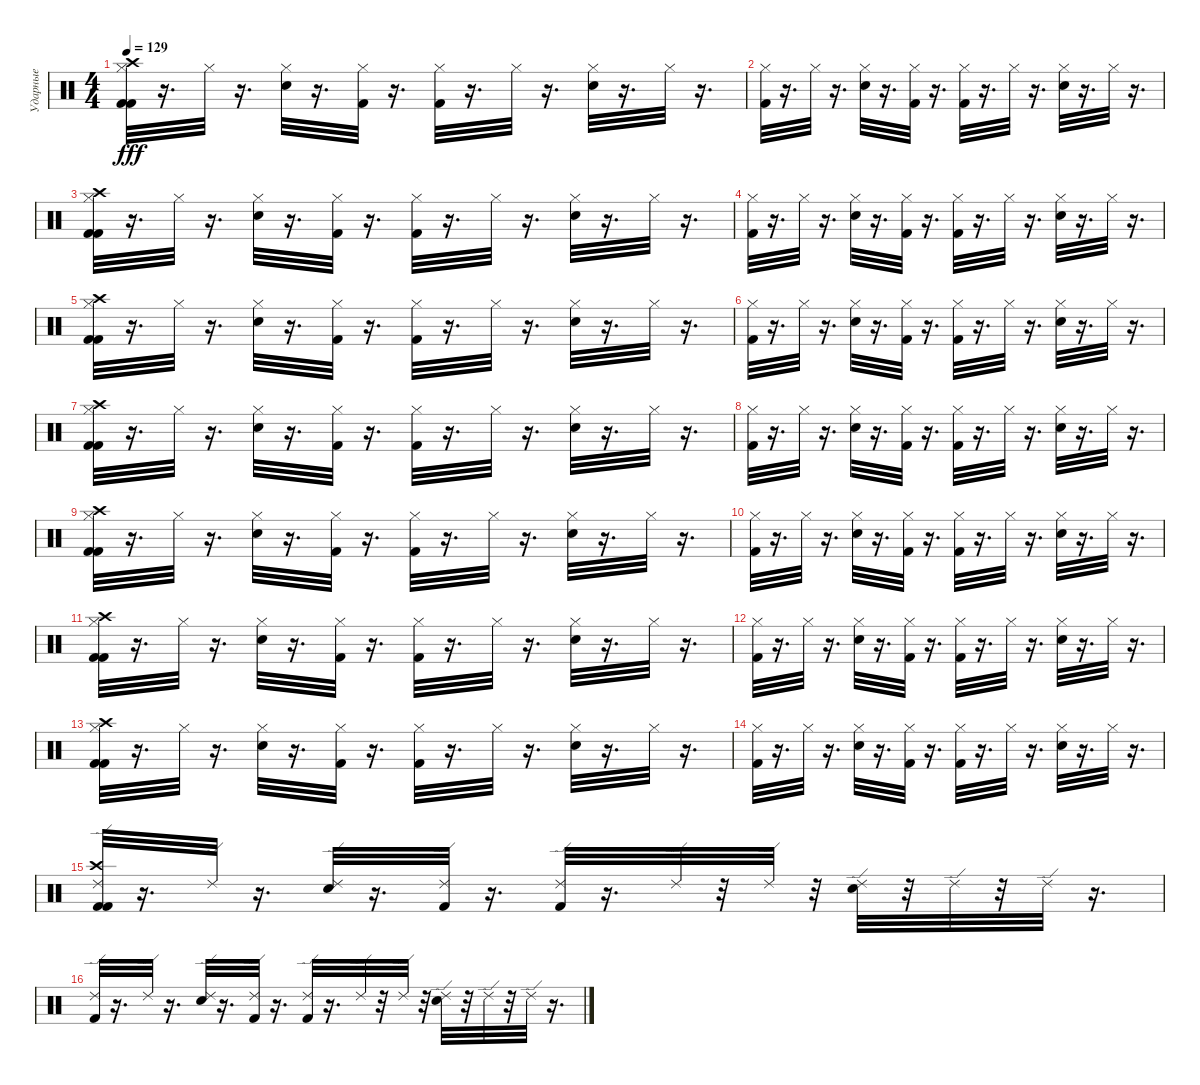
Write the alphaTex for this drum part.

\track ("Ударные" "Ударные") {instrument percussion}
\staff {score}
\articulation defaults
\ts (4 4)
\tempo 129
\clef neutral
\ks c
("Kick (hit) 2" "Crash high (hit)" "Kick (hit) 2" "Hi-Hat (closed)").32{dy fff balance 10} r.16{d} "Hi-Hat (closed)".32{balance 10} r.16{d} ("Electric Snare (hit)" "Hi-Hat (closed)").32{balance 10} r.16{d} ("Kick (hit) 2" "Hi-Hat (closed)").32{balance 10} r.16{d} ("Kick (hit) 2" "Hi-Hat (closed)").32{balance 10} r.16{d} "Hi-Hat (closed)".32{balance 10} r.16{d} ("Electric Snare (hit)" "Hi-Hat (closed)").32{balance 10} r.16{d} "Hi-Hat (closed)".32{balance 10} r.16{d} |
("Kick (hit) 2" "Hi-Hat (closed)").32{balance 10} r.16{d} "Hi-Hat (closed)".32{balance 10} r.16{d} ("Electric Snare (hit)" "Hi-Hat (closed)").32{balance 10} r.16{d} ("Kick (hit) 2" "Hi-Hat (closed)").32{balance 10} r.16{d} ("Kick (hit) 2" "Hi-Hat (closed)").32{balance 10} r.16{d} "Hi-Hat (closed)".32{balance 10} r.16{d} ("Electric Snare (hit)" "Hi-Hat (closed)").32{balance 10} r.16{d} "Hi-Hat (closed)".32{balance 10} r.16{d} |
("Kick (hit) 2" "Crash high (hit)" "Kick (hit) 2" "Hi-Hat (closed)").32{balance 10} r.16{d} "Hi-Hat (closed)".32{balance 10} r.16{d} ("Electric Snare (hit)" "Hi-Hat (closed)").32{balance 10} r.16{d} ("Kick (hit) 2" "Hi-Hat (closed)").32{balance 10} r.16{d} ("Kick (hit) 2" "Hi-Hat (closed)").32{balance 10} r.16{d} "Hi-Hat (closed)".32{balance 10} r.16{d} ("Electric Snare (hit)" "Hi-Hat (closed)").32{balance 10} r.16{d} "Hi-Hat (closed)".32{balance 10} r.16{d} |
("Kick (hit) 2" "Hi-Hat (closed)").32{balance 10} r.16{d} "Hi-Hat (closed)".32{balance 10} r.16{d} ("Electric Snare (hit)" "Hi-Hat (closed)").32{balance 10} r.16{d} ("Kick (hit) 2" "Hi-Hat (closed)").32{balance 10} r.16{d} ("Kick (hit) 2" "Hi-Hat (closed)").32{balance 10} r.16{d} "Hi-Hat (closed)".32{balance 10} r.16{d} ("Electric Snare (hit)" "Hi-Hat (closed)").32{balance 10} r.16{d} "Hi-Hat (closed)".32{balance 10} r.16{d} |
("Kick (hit) 2" "Crash high (hit)" "Kick (hit) 2" "Hi-Hat (closed)").32{balance 10} r.16{d} "Hi-Hat (closed)".32{balance 10} r.16{d} ("Electric Snare (hit)" "Hi-Hat (closed)").32{balance 10} r.16{d} ("Kick (hit) 2" "Hi-Hat (closed)").32{balance 10} r.16{d} ("Kick (hit) 2" "Hi-Hat (closed)").32{balance 10} r.16{d} "Hi-Hat (closed)".32{balance 10} r.16{d} ("Electric Snare (hit)" "Hi-Hat (closed)").32{balance 10} r.16{d} "Hi-Hat (closed)".32{balance 10} r.16{d} |
("Kick (hit) 2" "Hi-Hat (closed)").32{balance 10} r.16{d} "Hi-Hat (closed)".32{balance 10} r.16{d} ("Electric Snare (hit)" "Hi-Hat (closed)").32{balance 10} r.16{d} ("Kick (hit) 2" "Hi-Hat (closed)").32{balance 10} r.16{d} ("Kick (hit) 2" "Hi-Hat (closed)").32{balance 10} r.16{d} "Hi-Hat (closed)".32{balance 10} r.16{d} ("Electric Snare (hit)" "Hi-Hat (closed)").32{balance 10} r.16{d} "Hi-Hat (closed)".32{balance 10} r.16{d} |
("Kick (hit) 2" "Crash high (hit)" "Kick (hit) 2" "Hi-Hat (closed)").32{balance 10} r.16{d} "Hi-Hat (closed)".32{balance 10} r.16{d} ("Electric Snare (hit)" "Hi-Hat (closed)").32{balance 10} r.16{d} ("Kick (hit) 2" "Hi-Hat (closed)").32{balance 10} r.16{d} ("Kick (hit) 2" "Hi-Hat (closed)").32{balance 10} r.16{d} "Hi-Hat (closed)".32{balance 10} r.16{d} ("Electric Snare (hit)" "Hi-Hat (closed)").32{balance 10} r.16{d} "Hi-Hat (closed)".32{balance 10} r.16{d} |
("Kick (hit) 2" "Hi-Hat (closed)").32{balance 10} r.16{d} "Hi-Hat (closed)".32{balance 10} r.16{d} ("Electric Snare (hit)" "Hi-Hat (closed)").32{balance 10} r.16{d} ("Kick (hit) 2" "Hi-Hat (closed)").32{balance 10} r.16{d} ("Kick (hit) 2" "Hi-Hat (closed)").32{balance 10} r.16{d} "Hi-Hat (closed)".32{balance 10} r.16{d} ("Electric Snare (hit)" "Hi-Hat (closed)").32{balance 10} r.16{d} "Hi-Hat (closed)".32{balance 10} r.16{d} |
("Kick (hit) 2" "Crash high (hit)" "Kick (hit) 2" "Hi-Hat (closed)").32{balance 10} r.16{d} "Hi-Hat (closed)".32{balance 10} r.16{d} ("Electric Snare (hit)" "Hi-Hat (closed)").32{balance 10} r.16{d} ("Kick (hit) 2" "Hi-Hat (closed)").32{balance 10} r.16{d} ("Kick (hit) 2" "Hi-Hat (closed)").32{balance 10} r.16{d} "Hi-Hat (closed)".32{balance 10} r.16{d} ("Electric Snare (hit)" "Hi-Hat (closed)").32{balance 10} r.16{d} "Hi-Hat (closed)".32{balance 10} r.16{d} |
("Kick (hit) 2" "Hi-Hat (closed)").32{balance 10} r.16{d} "Hi-Hat (closed)".32{balance 10} r.16{d} ("Electric Snare (hit)" "Hi-Hat (closed)").32{balance 10} r.16{d} ("Kick (hit) 2" "Hi-Hat (closed)").32{balance 10} r.16{d} ("Kick (hit) 2" "Hi-Hat (closed)").32{balance 10} r.16{d} "Hi-Hat (closed)".32{balance 10} r.16{d} ("Electric Snare (hit)" "Hi-Hat (closed)").32{balance 10} r.16{d} "Hi-Hat (closed)".32{balance 10} r.16{d} |
("Kick (hit) 2" "Crash high (hit)" "Kick (hit) 2" "Hi-Hat (closed)").32{balance 10} r.16{d} "Hi-Hat (closed)".32{balance 10} r.16{d} ("Electric Snare (hit)" "Hi-Hat (closed)").32{balance 10} r.16{d} ("Kick (hit) 2" "Hi-Hat (closed)").32{balance 10} r.16{d} ("Kick (hit) 2" "Hi-Hat (closed)").32{balance 10} r.16{d} "Hi-Hat (closed)".32{balance 10} r.16{d} ("Electric Snare (hit)" "Hi-Hat (closed)").32{balance 10} r.16{d} "Hi-Hat (closed)".32{balance 10} r.16{d} |
("Kick (hit) 2" "Hi-Hat (closed)").32{balance 10} r.16{d} "Hi-Hat (closed)".32{balance 10} r.16{d} ("Electric Snare (hit)" "Hi-Hat (closed)").32{balance 10} r.16{d} ("Kick (hit) 2" "Hi-Hat (closed)").32{balance 10} r.16{d} ("Kick (hit) 2" "Hi-Hat (closed)").32{balance 10} r.16{d} "Hi-Hat (closed)".32{balance 10} r.16{d} ("Electric Snare (hit)" "Hi-Hat (closed)").32{balance 10} r.16{d} "Hi-Hat (closed)".32{balance 10} r.16{d} |
("Kick (hit) 2" "Crash high (hit)" "Kick (hit) 2" "Hi-Hat (closed)").32{balance 10} r.16{d} "Hi-Hat (closed)".32{balance 10} r.16{d} ("Electric Snare (hit)" "Hi-Hat (closed)").32{balance 10} r.16{d} ("Kick (hit) 2" "Hi-Hat (closed)").32{balance 10} r.16{d} ("Kick (hit) 2" "Hi-Hat (closed)").32{balance 10} r.16{d} "Hi-Hat (closed)".32{balance 10} r.16{d} ("Electric Snare (hit)" "Hi-Hat (closed)").32{balance 10} r.16{d} "Hi-Hat (closed)".32{balance 10} r.16{d} |
("Kick (hit) 2" "Hi-Hat (closed)").32{balance 10} r.16{d} "Hi-Hat (closed)".32{balance 10} r.16{d} ("Electric Snare (hit)" "Hi-Hat (closed)").32{balance 10} r.16{d} ("Kick (hit) 2" "Hi-Hat (closed)").32{balance 10} r.16{d} ("Kick (hit) 2" "Hi-Hat (closed)").32{balance 10} r.16{d} "Hi-Hat (closed)".32{balance 10} r.16{d} ("Electric Snare (hit)" "Hi-Hat (closed)").32{balance 10} r.16{d} "Hi-Hat (closed)".32{balance 10} r.16{d} |
("Kick (hit) 2" "Crash high (hit)" "Kick (hit) 2" "Ride (edge) 2").32{balance 8} r.16{d} "Ride (edge) 2".32{balance 8} r.16{d} ("Electric Snare (hit)" "Ride (edge) 2").32{balance 8} r.16{d} ("Kick (hit) 2" "Ride (edge) 2").32{balance 8} r.16{d} ("Kick (hit) 2" "Ride (edge) 2").32{balance 8} r.16{d} "Ride (edge) 2".32{balance 8} r.32 "Ride (edge) 2".32{balance 8} r.32 ("Electric Snare (hit)" "Ride (edge) 2").32{balance 8} r.32 "Ride (edge) 2".32{balance 8} r.32 "Ride (edge) 2".32{balance 8} r.16{d} |
("Kick (hit) 2" "Ride (edge) 2").32{balance 8} r.16{d} "Ride (edge) 2".32{balance 8} r.16{d} ("Electric Snare (hit)" "Ride (edge) 2").32{balance 8} r.16{d} ("Kick (hit) 2" "Ride (edge) 2").32{balance 8} r.16{d} ("Kick (hit) 2" "Ride (edge) 2").32{balance 8} r.16{d} "Ride (edge) 2".32{balance 8} r.32 "Ride (edge) 2".32{balance 8} r.32 ("Electric Snare (hit)" "Ride (edge) 2").32{balance 8} r.32 "Ride (edge) 2".32{balance 8} r.32 "Ride (edge) 2".32{balance 8} r.16{d}
